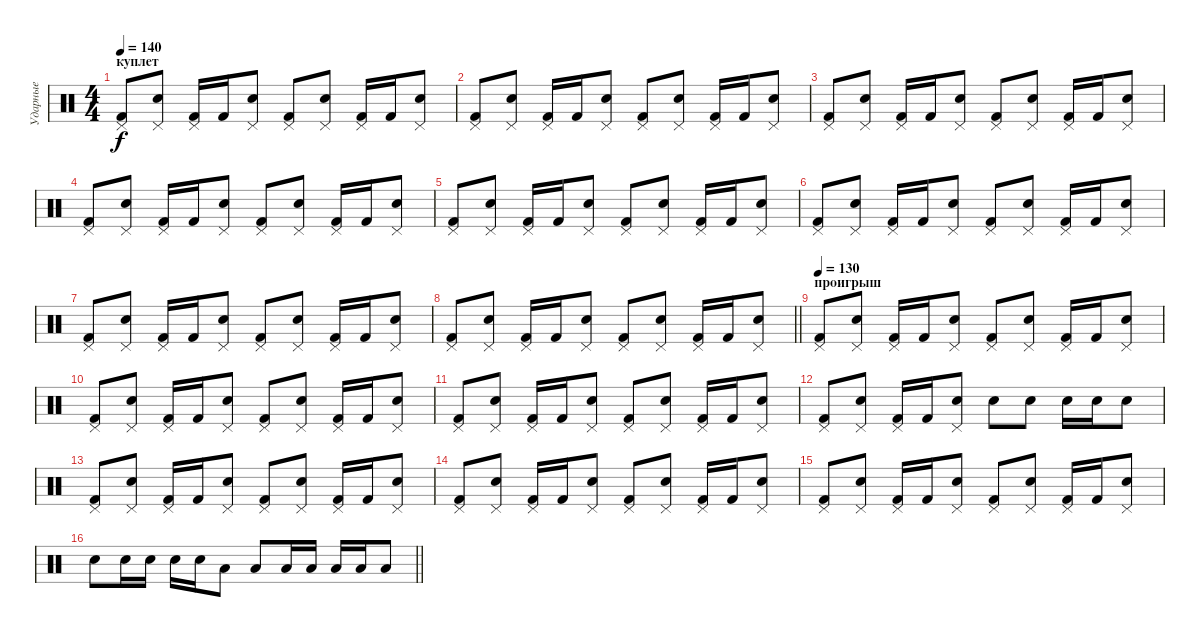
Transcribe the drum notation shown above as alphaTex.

\track ("Ударные" "Ударные") {instrument percussion}
\staff {score}
\articulation defaults
\ts (4 4)
\section ("" "куплет")
\tempo 140
\clef neutral
\ks c
("Pedal Hi-Hat (hit)" "Kick (hit) 2").8{dy f} ("Pedal Hi-Hat (hit)" "Electric Snare (hit)").8 ("Pedal Hi-Hat (hit)" "Kick (hit) 2").16 "Kick (hit) 2".16 ("Pedal Hi-Hat (hit)" "Electric Snare (hit)").8 ("Pedal Hi-Hat (hit)" "Kick (hit) 2").8 ("Pedal Hi-Hat (hit)" "Electric Snare (hit)").8 ("Pedal Hi-Hat (hit)" "Kick (hit) 2").16 "Kick (hit) 2".16 ("Pedal Hi-Hat (hit)" "Electric Snare (hit)").8 |
("Pedal Hi-Hat (hit)" "Kick (hit) 2").8 ("Pedal Hi-Hat (hit)" "Electric Snare (hit)").8 ("Pedal Hi-Hat (hit)" "Kick (hit) 2").16 "Kick (hit) 2".16 ("Pedal Hi-Hat (hit)" "Electric Snare (hit)").8 ("Pedal Hi-Hat (hit)" "Kick (hit) 2").8 ("Pedal Hi-Hat (hit)" "Electric Snare (hit)").8 ("Pedal Hi-Hat (hit)" "Kick (hit) 2").16 "Kick (hit) 2".16 ("Pedal Hi-Hat (hit)" "Electric Snare (hit)").8 |
("Pedal Hi-Hat (hit)" "Kick (hit) 2").8 ("Pedal Hi-Hat (hit)" "Electric Snare (hit)").8 ("Pedal Hi-Hat (hit)" "Kick (hit) 2").16 "Kick (hit) 2".16 ("Pedal Hi-Hat (hit)" "Electric Snare (hit)").8 ("Pedal Hi-Hat (hit)" "Kick (hit) 2").8 ("Pedal Hi-Hat (hit)" "Electric Snare (hit)").8 ("Pedal Hi-Hat (hit)" "Kick (hit) 2").16 "Kick (hit) 2".16 ("Pedal Hi-Hat (hit)" "Electric Snare (hit)").8 |
("Pedal Hi-Hat (hit)" "Kick (hit) 2").8 ("Pedal Hi-Hat (hit)" "Electric Snare (hit)").8 ("Pedal Hi-Hat (hit)" "Kick (hit) 2").16 "Kick (hit) 2".16 ("Pedal Hi-Hat (hit)" "Electric Snare (hit)").8 ("Pedal Hi-Hat (hit)" "Kick (hit) 2").8 ("Pedal Hi-Hat (hit)" "Electric Snare (hit)").8 ("Pedal Hi-Hat (hit)" "Kick (hit) 2").16 "Kick (hit) 2".16 ("Pedal Hi-Hat (hit)" "Electric Snare (hit)").8 |
("Pedal Hi-Hat (hit)" "Kick (hit) 2").8 ("Pedal Hi-Hat (hit)" "Electric Snare (hit)").8 ("Pedal Hi-Hat (hit)" "Kick (hit) 2").16 "Kick (hit) 2".16 ("Pedal Hi-Hat (hit)" "Electric Snare (hit)").8 ("Pedal Hi-Hat (hit)" "Kick (hit) 2").8 ("Pedal Hi-Hat (hit)" "Electric Snare (hit)").8 ("Pedal Hi-Hat (hit)" "Kick (hit) 2").16 "Kick (hit) 2".16 ("Pedal Hi-Hat (hit)" "Electric Snare (hit)").8 |
("Pedal Hi-Hat (hit)" "Kick (hit) 2").8 ("Pedal Hi-Hat (hit)" "Electric Snare (hit)").8 ("Pedal Hi-Hat (hit)" "Kick (hit) 2").16 "Kick (hit) 2".16 ("Pedal Hi-Hat (hit)" "Electric Snare (hit)").8 ("Pedal Hi-Hat (hit)" "Kick (hit) 2").8 ("Pedal Hi-Hat (hit)" "Electric Snare (hit)").8 ("Pedal Hi-Hat (hit)" "Kick (hit) 2").16 "Kick (hit) 2".16 ("Pedal Hi-Hat (hit)" "Electric Snare (hit)").8 |
("Pedal Hi-Hat (hit)" "Kick (hit) 2").8 ("Pedal Hi-Hat (hit)" "Electric Snare (hit)").8 ("Pedal Hi-Hat (hit)" "Kick (hit) 2").16 "Kick (hit) 2".16 ("Pedal Hi-Hat (hit)" "Electric Snare (hit)").8 ("Pedal Hi-Hat (hit)" "Kick (hit) 2").8 ("Pedal Hi-Hat (hit)" "Electric Snare (hit)").8 ("Pedal Hi-Hat (hit)" "Kick (hit) 2").16 "Kick (hit) 2".16 ("Pedal Hi-Hat (hit)" "Electric Snare (hit)").8 |
\barLineRight lightlight
("Pedal Hi-Hat (hit)" "Kick (hit) 2").8 ("Pedal Hi-Hat (hit)" "Electric Snare (hit)").8 ("Pedal Hi-Hat (hit)" "Kick (hit) 2").16 "Kick (hit) 2".16 ("Pedal Hi-Hat (hit)" "Electric Snare (hit)").8 ("Pedal Hi-Hat (hit)" "Kick (hit) 2").8 ("Pedal Hi-Hat (hit)" "Electric Snare (hit)").8 ("Pedal Hi-Hat (hit)" "Kick (hit) 2").16 "Kick (hit) 2".16 ("Pedal Hi-Hat (hit)" "Electric Snare (hit)").8 |
\section ("" "проигрыш")
\tempo 130
("Pedal Hi-Hat (hit)" "Kick (hit) 2").8 ("Pedal Hi-Hat (hit)" "Electric Snare (hit)").8 ("Pedal Hi-Hat (hit)" "Kick (hit) 2").16 "Kick (hit) 2".16 ("Pedal Hi-Hat (hit)" "Electric Snare (hit)").8 ("Pedal Hi-Hat (hit)" "Kick (hit) 2").8 ("Pedal Hi-Hat (hit)" "Electric Snare (hit)").8 ("Pedal Hi-Hat (hit)" "Kick (hit) 2").16 "Kick (hit) 2".16 ("Pedal Hi-Hat (hit)" "Electric Snare (hit)").8 |
("Pedal Hi-Hat (hit)" "Kick (hit) 2").8 ("Pedal Hi-Hat (hit)" "Electric Snare (hit)").8 ("Pedal Hi-Hat (hit)" "Kick (hit) 2").16 "Kick (hit) 2".16 ("Pedal Hi-Hat (hit)" "Electric Snare (hit)").8 ("Pedal Hi-Hat (hit)" "Kick (hit) 2").8 ("Pedal Hi-Hat (hit)" "Electric Snare (hit)").8 ("Pedal Hi-Hat (hit)" "Kick (hit) 2").16 "Kick (hit) 2".16 ("Pedal Hi-Hat (hit)" "Electric Snare (hit)").8 |
("Pedal Hi-Hat (hit)" "Kick (hit) 2").8 ("Pedal Hi-Hat (hit)" "Electric Snare (hit)").8 ("Pedal Hi-Hat (hit)" "Kick (hit) 2").16 "Kick (hit) 2".16 ("Pedal Hi-Hat (hit)" "Electric Snare (hit)").8 ("Pedal Hi-Hat (hit)" "Kick (hit) 2").8 ("Pedal Hi-Hat (hit)" "Electric Snare (hit)").8 ("Pedal Hi-Hat (hit)" "Kick (hit) 2").16 "Kick (hit) 2".16 ("Pedal Hi-Hat (hit)" "Electric Snare (hit)").8 |
("Pedal Hi-Hat (hit)" "Kick (hit) 2").8 ("Pedal Hi-Hat (hit)" "Electric Snare (hit)").8 ("Pedal Hi-Hat (hit)" "Kick (hit) 2").16 "Kick (hit) 2".16 ("Pedal Hi-Hat (hit)" "Electric Snare (hit)").8 "Electric Snare (hit)".8 "Electric Snare (hit)".8 "Electric Snare (hit)".16 "Electric Snare (hit)".16 "Electric Snare (hit)".8 |
("Pedal Hi-Hat (hit)" "Kick (hit) 2").8 ("Pedal Hi-Hat (hit)" "Electric Snare (hit)").8 ("Pedal Hi-Hat (hit)" "Kick (hit) 2").16 "Kick (hit) 2".16 ("Pedal Hi-Hat (hit)" "Electric Snare (hit)").8 ("Pedal Hi-Hat (hit)" "Kick (hit) 2").8 ("Pedal Hi-Hat (hit)" "Electric Snare (hit)").8 ("Pedal Hi-Hat (hit)" "Kick (hit) 2").16 "Kick (hit) 2".16 ("Pedal Hi-Hat (hit)" "Electric Snare (hit)").8 |
("Pedal Hi-Hat (hit)" "Kick (hit) 2").8 ("Pedal Hi-Hat (hit)" "Electric Snare (hit)").8 ("Pedal Hi-Hat (hit)" "Kick (hit) 2").16 "Kick (hit) 2".16 ("Pedal Hi-Hat (hit)" "Electric Snare (hit)").8 ("Pedal Hi-Hat (hit)" "Kick (hit) 2").8 ("Pedal Hi-Hat (hit)" "Electric Snare (hit)").8 ("Pedal Hi-Hat (hit)" "Kick (hit) 2").16 "Kick (hit) 2".16 ("Pedal Hi-Hat (hit)" "Electric Snare (hit)").8 |
("Pedal Hi-Hat (hit)" "Kick (hit) 2").8 ("Pedal Hi-Hat (hit)" "Electric Snare (hit)").8 ("Pedal Hi-Hat (hit)" "Kick (hit) 2").16 "Kick (hit) 2".16 ("Pedal Hi-Hat (hit)" "Electric Snare (hit)").8 ("Pedal Hi-Hat (hit)" "Kick (hit) 2").8 ("Pedal Hi-Hat (hit)" "Electric Snare (hit)").8 ("Pedal Hi-Hat (hit)" "Kick (hit) 2").16 "Kick (hit) 2".16 ("Pedal Hi-Hat (hit)" "Electric Snare (hit)").8 |
\barLineRight lightlight "Electric Snare (hit)".8 "Electric Snare (hit)".16 "Electric Snare (hit)".16 "Electric Snare (hit)".16 "Electric Snare (hit)".16 "Low Tom (hit)".8 "Low Tom (hit)".8 "Low Tom (hit)".16 "Low Tom (hit)".16 "Low Tom (hit)".16 "Low Tom (hit)".16 "Low Tom (hit)".8
